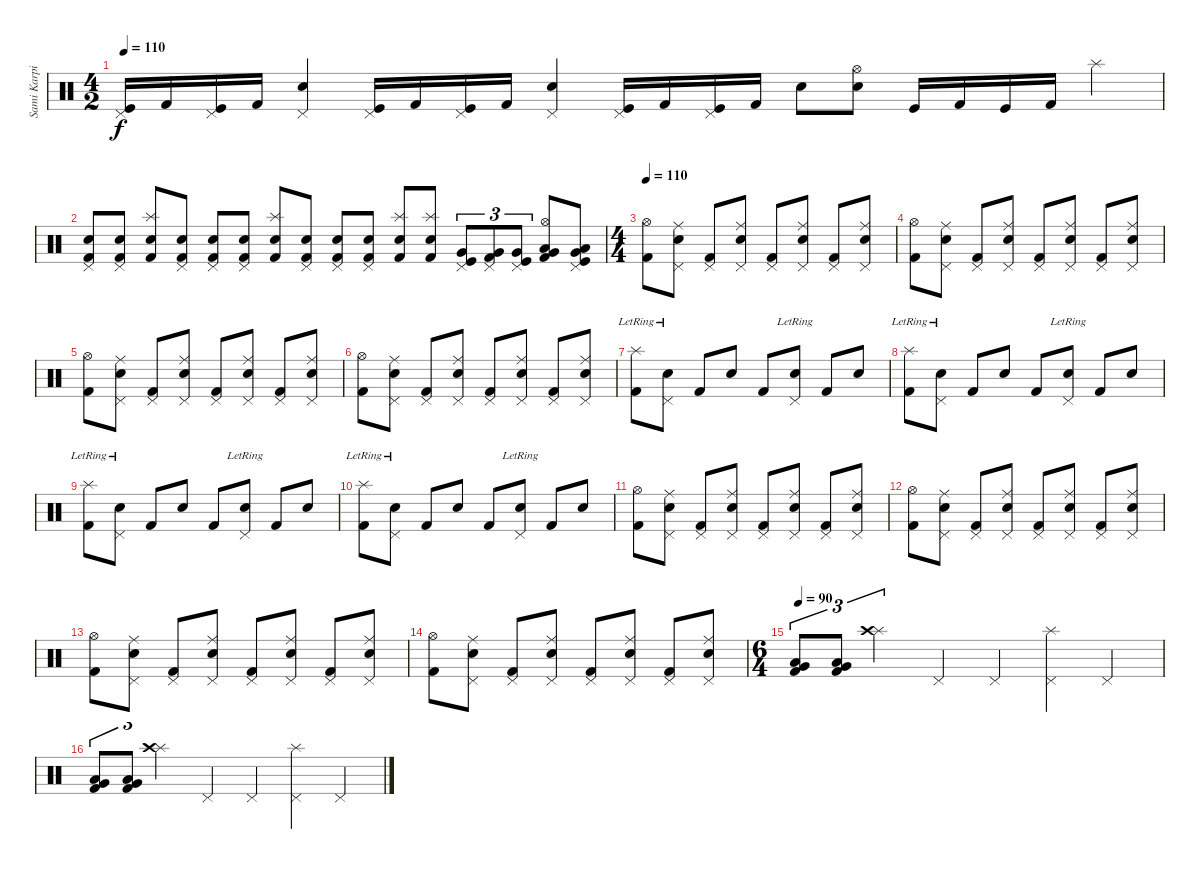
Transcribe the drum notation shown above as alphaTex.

\track ("Sami Karpinnen" "Sami Karpi") {instrument percussion}
\staff {score}
\articulation defaults
\ts (4 2)
\tempo 110
\clef neutral
\ks c
("Pedal Hi-Hat (hit)" "Kick (hit)").16{dy f} "Kick (hit) 2".16 ("Pedal Hi-Hat (hit)" "Kick (hit)").16 "Kick (hit) 2".16 ("Snare (hit) 2" "Pedal Hi-Hat (hit)").4 ("Pedal Hi-Hat (hit)" "Kick (hit)").16 "Kick (hit) 2".16 ("Pedal Hi-Hat (hit)" "Kick (hit)").16 "Kick (hit) 2".16 ("Snare (hit) 2" "Pedal Hi-Hat (hit)").4 ("Pedal Hi-Hat (hit)" "Kick (hit)").16 "Kick (hit) 2".16 ("Pedal Hi-Hat (hit)" "Kick (hit)").16 "Kick (hit) 2".16 "Snare (hit) 2".8 ("Snare (hit) 2" "Hi-Hat (open)").8 "Kick (hit)".16 "Kick (hit) 2".16 "Kick (hit)".16 "Kick (hit) 2".16 "Splash (hit)".4 |
("Electric Snare (hit)" "Pedal Hi-Hat (hit)" "Kick (hit) 2").8 ("Electric Snare (hit)" "Pedal Hi-Hat (hit)" "Kick (hit) 2").8 ("Electric Snare (hit)" "Splash (hit)" "Kick (hit) 2").8 ("Electric Snare (hit)" "Pedal Hi-Hat (hit)" "Kick (hit) 2").8 ("Electric Snare (hit)" "Pedal Hi-Hat (hit)" "Kick (hit) 2").8 ("Electric Snare (hit)" "Pedal Hi-Hat (hit)" "Kick (hit) 2").8 ("Electric Snare (hit)" "Splash (hit)" "Kick (hit) 2").8 ("Electric Snare (hit)" "Pedal Hi-Hat (hit)" "Kick (hit) 2").8 ("Electric Snare (hit)" "Pedal Hi-Hat (hit)" "Kick (hit) 2").8 ("Electric Snare (hit)" "Pedal Hi-Hat (hit)" "Kick (hit) 2").8 ("Electric Snare (hit)" "Splash (hit)" "Kick (hit) 2").8 ("Electric Snare (hit)" "Splash (hit)" "Kick (hit) 2").8 ("Very Low Tom (hit)" "Pedal Hi-Hat (hit)" "Kick (hit)").8{tu (3 2)} ("Very Low Tom (hit)" "Pedal Hi-Hat (hit)" "Kick (hit) 2").8{tu (3 2)} ("Very Low Tom (hit)" "Pedal Hi-Hat (hit)" "Kick (hit)").8{tu (3 2)} ("Very Low Tom (hit)" "Low Tom (hit)" "Hi-Hat (open)" "Kick (hit) 2").8 ("Pedal Hi-Hat (hit)" "Very Low Tom (hit)" "Low Floor Tom (hit)" "Kick (hit)").8 |
\ts (4 4)
\tempo 100
\tempo 110
("Hi-Hat (open)" "Kick (hit) 2").8 ("Ride (middle)" "Snare (hit) 2" "Pedal Hi-Hat (hit)").8 ("Pedal Hi-Hat (hit)" "Kick (hit) 2").8 ("Ride (middle)" "Snare (hit) 2" "Pedal Hi-Hat (hit)").8 ("Pedal Hi-Hat (hit)" "Kick (hit) 2").8 ("Ride (middle)" "Snare (hit) 2" "Pedal Hi-Hat (hit)").8 ("Pedal Hi-Hat (hit)" "Kick (hit) 2").8 ("Ride (middle)" "Snare (hit) 2" "Pedal Hi-Hat (hit)").8 |
("Hi-Hat (open)" "Kick (hit) 2").8 ("Ride (middle)" "Snare (hit) 2" "Pedal Hi-Hat (hit)").8 ("Pedal Hi-Hat (hit)" "Kick (hit) 2").8 ("Ride (middle)" "Snare (hit) 2" "Pedal Hi-Hat (hit)").8 ("Pedal Hi-Hat (hit)" "Kick (hit) 2").8 ("Ride (middle)" "Snare (hit) 2" "Pedal Hi-Hat (hit)").8 ("Pedal Hi-Hat (hit)" "Kick (hit) 2").8 ("Ride (middle)" "Snare (hit) 2" "Pedal Hi-Hat (hit)").8 |
("Hi-Hat (open)" "Kick (hit) 2").8 ("Ride (middle)" "Snare (hit) 2" "Pedal Hi-Hat (hit)").8 ("Pedal Hi-Hat (hit)" "Kick (hit) 2").8 ("Ride (middle)" "Snare (hit) 2" "Pedal Hi-Hat (hit)").8 ("Pedal Hi-Hat (hit)" "Kick (hit) 2").8 ("Ride (middle)" "Snare (hit) 2" "Pedal Hi-Hat (hit)").8 ("Pedal Hi-Hat (hit)" "Kick (hit) 2").8 ("Ride (middle)" "Snare (hit) 2" "Pedal Hi-Hat (hit)").8 |
("Hi-Hat (open)" "Kick (hit) 2").8 ("Ride (middle)" "Snare (hit) 2" "Pedal Hi-Hat (hit)").8 ("Pedal Hi-Hat (hit)" "Kick (hit) 2").8 ("Ride (middle)" "Snare (hit) 2" "Pedal Hi-Hat (hit)").8 ("Pedal Hi-Hat (hit)" "Kick (hit) 2").8 ("Ride (middle)" "Snare (hit) 2" "Pedal Hi-Hat (hit)").8 ("Pedal Hi-Hat (hit)" "Kick (hit) 2").8 ("Ride (middle)" "Snare (hit) 2" "Pedal Hi-Hat (hit)").8 |
("Splash (hit)"{lr} "Kick (hit) 2").8 ("Snare (hit) 2" "Pedal Hi-Hat (hit)"{lr}).8 "Kick (hit) 2".8 "Snare (hit) 2".8 "Kick (hit) 2".8 ("Snare (hit) 2" "Pedal Hi-Hat (hit)"{lr}).8 "Kick (hit) 2".8 "Snare (hit) 2".8 |
("Splash (hit)"{lr} "Kick (hit) 2").8 ("Snare (hit) 2" "Pedal Hi-Hat (hit)"{lr}).8 "Kick (hit) 2".8 "Snare (hit) 2".8 "Kick (hit) 2".8 ("Snare (hit) 2" "Pedal Hi-Hat (hit)"{lr}).8 "Kick (hit) 2".8 "Snare (hit) 2".8 |
("Splash (hit)"{lr} "Kick (hit) 2").8 ("Snare (hit) 2" "Pedal Hi-Hat (hit)"{lr}).8 "Kick (hit) 2".8 "Snare (hit) 2".8 "Kick (hit) 2".8 ("Snare (hit) 2" "Pedal Hi-Hat (hit)"{lr}).8 "Kick (hit) 2".8 "Snare (hit) 2".8 |
("Splash (hit)"{lr} "Kick (hit) 2").8 ("Snare (hit) 2" "Pedal Hi-Hat (hit)"{lr}).8 "Kick (hit) 2".8 "Snare (hit) 2".8 "Kick (hit) 2".8 ("Snare (hit) 2" "Pedal Hi-Hat (hit)"{lr}).8 "Kick (hit) 2".8 "Snare (hit) 2".8 |
("Hi-Hat (open)" "Kick (hit) 2").8 ("Ride (middle)" "Snare (hit) 2" "Pedal Hi-Hat (hit)").8 ("Pedal Hi-Hat (hit)" "Kick (hit) 2").8 ("Ride (middle)" "Snare (hit) 2" "Pedal Hi-Hat (hit)").8 ("Pedal Hi-Hat (hit)" "Kick (hit) 2").8 ("Ride (middle)" "Snare (hit) 2" "Pedal Hi-Hat (hit)").8 ("Pedal Hi-Hat (hit)" "Kick (hit) 2").8 ("Ride (middle)" "Snare (hit) 2" "Pedal Hi-Hat (hit)").8 |
("Hi-Hat (open)" "Kick (hit) 2").8 ("Ride (middle)" "Snare (hit) 2" "Pedal Hi-Hat (hit)").8 ("Pedal Hi-Hat (hit)" "Kick (hit) 2").8 ("Ride (middle)" "Snare (hit) 2" "Pedal Hi-Hat (hit)").8 ("Pedal Hi-Hat (hit)" "Kick (hit) 2").8 ("Ride (middle)" "Snare (hit) 2" "Pedal Hi-Hat (hit)").8 ("Pedal Hi-Hat (hit)" "Kick (hit) 2").8 ("Ride (middle)" "Snare (hit) 2" "Pedal Hi-Hat (hit)").8 |
("Hi-Hat (open)" "Kick (hit) 2").8 ("Ride (middle)" "Snare (hit) 2" "Pedal Hi-Hat (hit)").8 ("Pedal Hi-Hat (hit)" "Kick (hit) 2").8 ("Ride (middle)" "Snare (hit) 2" "Pedal Hi-Hat (hit)").8 ("Pedal Hi-Hat (hit)" "Kick (hit) 2").8 ("Ride (middle)" "Snare (hit) 2" "Pedal Hi-Hat (hit)").8 ("Pedal Hi-Hat (hit)" "Kick (hit) 2").8 ("Ride (middle)" "Snare (hit) 2" "Pedal Hi-Hat (hit)").8 |
("Hi-Hat (open)" "Kick (hit) 2").8 ("Ride (middle)" "Snare (hit) 2" "Pedal Hi-Hat (hit)").8 ("Pedal Hi-Hat (hit)" "Kick (hit) 2").8 ("Ride (middle)" "Snare (hit) 2" "Pedal Hi-Hat (hit)").8 ("Pedal Hi-Hat (hit)" "Kick (hit) 2").8 ("Ride (middle)" "Snare (hit) 2" "Pedal Hi-Hat (hit)").8 ("Pedal Hi-Hat (hit)" "Kick (hit) 2").8 ("Ride (middle)" "Snare (hit) 2" "Pedal Hi-Hat (hit)").8 |
\ts (6 4)
\tempo 90
("Very Low Tom (hit)" "Low Floor Tom (hit)" "Kick (hit) 2").8{tu (3 2)} ("Very Low Tom (hit)" "Low Floor Tom (hit)" "Kick (hit) 2").8{tu (3 2)} ("Splash (hit)" "Crash high (hit)").2{tu (3 2)} "Pedal Hi-Hat (hit)".4 "Pedal Hi-Hat (hit)".4 ("Splash (hit)" "Pedal Hi-Hat (hit)").4 "Pedal Hi-Hat (hit)".4 |
("Very Low Tom (hit)" "Low Floor Tom (hit)" "Kick (hit) 2").8{tu (3 2)} ("Very Low Tom (hit)" "Low Floor Tom (hit)" "Kick (hit) 2").8{tu (3 2)} ("Splash (hit)" "Crash high (hit)").2{tu (3 2)} "Pedal Hi-Hat (hit)".4 "Pedal Hi-Hat (hit)".4 ("Splash (hit)" "Pedal Hi-Hat (hit)").4 "Pedal Hi-Hat (hit)".4
